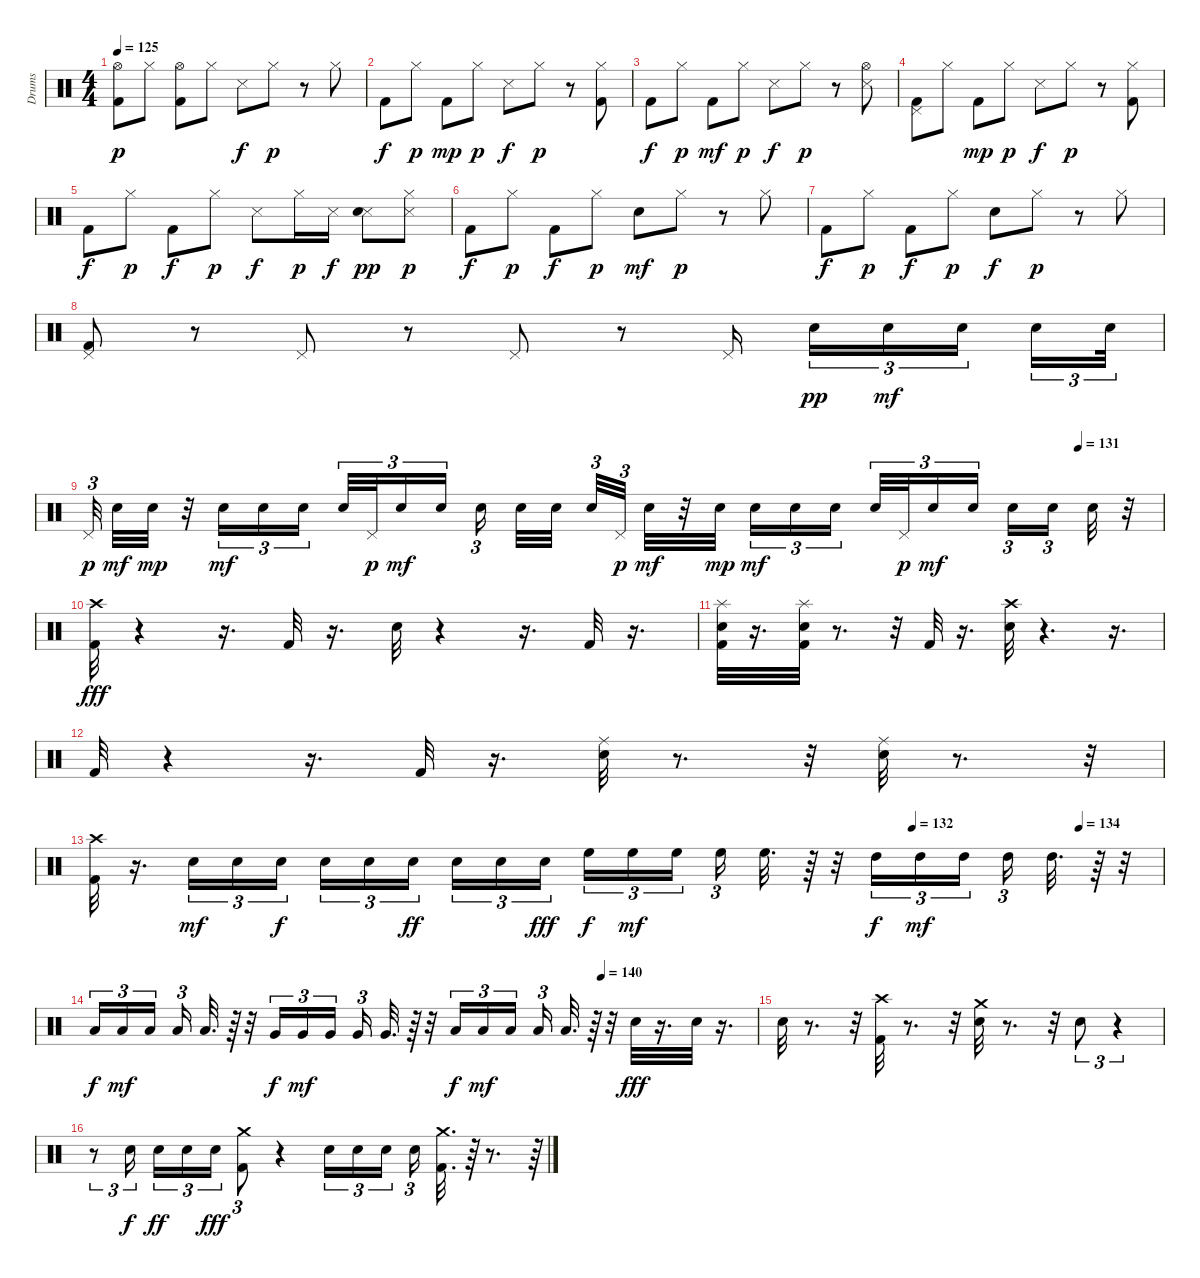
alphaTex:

\track ("Drums" "Drums") {instrument percussion}
\staff {score}
\articulation defaults
\ts (4 4)
\tempo 125
\clef neutral
\ks c
("Hi-Hat (open)" "Kick (hit) 2").8{dy p} "Hi-Hat (closed)".8 ("Kick (hit) 2" "Hi-Hat (open)").8 "Hi-Hat (closed)".8 "Snare (side stick) 3".8{dy f} "Hi-Hat (closed)".8{dy p} r.8 "Hi-Hat (closed)".8 |
"Kick (hit) 2".8{dy f} "Hi-Hat (closed)".8{dy p} "Kick (hit) 2".8{dy mp} "Hi-Hat (closed)".8{dy p} "Snare (side stick) 3".8{dy f} "Hi-Hat (closed)".8{dy p} r.8 ("Kick (hit) 2" "Hi-Hat (closed)").8 |
"Kick (hit) 2".8{dy f} "Hi-Hat (closed)".8{dy p} "Kick (hit) 2".8{dy mf} "Hi-Hat (closed)".8{dy p} "Snare (side stick) 3".8{dy f} "Hi-Hat (closed)".8{dy p} r.8 ("Snare (side stick) 3" "Hi-Hat (open)").8 |
("Pedal Hi-Hat (hit)" "Kick (hit) 2").8 "Hi-Hat (closed)".8 "Kick (hit) 2".8{dy mp} "Hi-Hat (closed)".8{dy p} "Snare (side stick) 3".8{dy f} "Hi-Hat (closed)".8{dy p} r.8 ("Kick (hit) 2" "Hi-Hat (closed)").8 |
"Kick (hit) 2".8{dy f} "Hi-Hat (closed)".8{dy p} "Kick (hit) 2".8{dy f} "Hi-Hat (closed)".8{dy p} "Snare (side stick) 3".8{dy f} "Hi-Hat (closed)".16{dy p} "Snare (side stick) 3".16{dy f} ("Snare (side stick) 3" "Snare (hit) 2").8{dy pp} ("Snare (side stick) 3" "Hi-Hat (closed)").8{dy p} |
"Kick (hit) 2".8{dy f} "Hi-Hat (closed)".8{dy p} "Kick (hit) 2".8{dy f} "Hi-Hat (closed)".8{dy p} "Snare (hit) 2".8{dy mf} "Hi-Hat (closed)".8{dy p} r.8 "Hi-Hat (closed)".8 |
"Kick (hit) 2".8{dy f} "Hi-Hat (closed)".8{dy p} "Kick (hit) 2".8{dy f} "Hi-Hat (closed)".8{dy p} "Snare (hit) 2".8{dy f} "Hi-Hat (closed)".8{dy p} r.8 "Hi-Hat (closed)".8 |
("Pedal Hi-Hat (hit)" "Kick (hit) 2").8 r.8 "Pedal Hi-Hat (hit)".8 r.8 "Pedal Hi-Hat (hit)".8 r.8 "Pedal Hi-Hat (hit)".16 "Snare (hit) 2".16{tu (3 2) dy pp} "Snare (hit) 2".16{tu (3 2) dy mf volume 5} "Snare (hit) 2".16{tu (3 2) volume 6} "Snare (hit) 2".16{tu (3 2) volume 6} "Snare (hit) 2".32{tu (3 2) volume 6} |
\tempo (131 0.921875)
"Pedal Hi-Hat (hit)".32{tu (3 2) dy p volume 6} "Snare (hit) 2".32{dy mf volume 6} "Snare (hit) 2".32{dy mp volume 6} r.32 "Snare (hit) 2".16{tu (3 2) dy mf volume 6} "Snare (hit) 2".16{tu (3 2) volume 7} "Snare (hit) 2".16{tu (3 2) volume 7} "Snare (hit) 2".32{tu (3 2) volume 7} "Pedal Hi-Hat (hit)".32{tu (3 2) dy p volume 7} "Snare (hit) 2".16{tu (3 2) dy mf} "Snare (hit) 2".16{tu (3 2) volume 7} "Snare (hit) 2".16{tu (3 2) volume 8} "Snare (hit) 2".32{volume 8} "Snare (hit) 2".32{volume 8} "Snare (hit) 2".32{tu (3 2) volume 8} "Pedal Hi-Hat (hit)".32{tu (3 2) dy p} "Snare (hit) 2".32{dy mf volume 8} r.32 "Snare (hit) 2".32{dy mp volume 8} "Snare (hit) 2".16{tu (3 2) dy mf volume 9} "Snare (hit) 2".16{tu (3 2) volume 9} "Snare (hit) 2".16{tu (3 2) volume 9} "Snare (hit) 2".32{tu (3 2) volume 9} "Pedal Hi-Hat (hit)".32{tu (3 2) dy p volume 9} "Snare (hit) 2".16{tu (3 2) dy mf volume 9} "Snare (hit) 2".16{tu (3 2) volume 10} "Snare (hit) 2".16{tu (3 2) volume 10} "Snare (hit) 2".16{tu (3 2) volume 10} "Snare (hit) 2".32{volume 10} r.32 |
("Kick (hit) 2" "Crash high (hit)").32{dy fff volume 11} r.4 r.16{d} "Kick (hit) 2".32 r.16{d} "Snare (hit) 2".32 r.4 r.16{d} "Kick (hit) 2".32 r.16{d} |
("Splash (hit)" "Snare (hit) 2" "Kick (hit) 2").32 r.16{d} ("Snare (hit) 2" "Kick (hit) 2" "Splash (hit)").32 r.8{d} r.32 "Kick (hit) 2".32 r.16{d} ("Snare (hit) 2" "Crash high (hit)").32 r.4{d} r.16{d} |
"Kick (hit) 2".32 r.4 r.16{d} "Kick (hit) 2".32 r.16{d} ("Snare (hit) 2" "Ride (middle)").32 r.8{d} r.32 ("Ride (middle)" "Snare (hit) 2").32 r.8{d} r.32 |
\tempo (132 0.765625)
\tempo (134 0.921875)
("Kick (hit) 2" "Crash high (hit)").32 r.16{d} "Snare (hit) 2".16{tu (3 2) dy mf} "Snare (hit) 2".16{tu (3 2)} "Snare (hit) 2".16{tu (3 2) dy f} "Snare (hit) 2".16{tu (3 2)} "Snare (hit) 2".16{tu (3 2)} "Snare (hit) 2".16{tu (3 2) dy ff} "Snare (hit) 2".16{tu (3 2)} "Snare (hit) 2".16{tu (3 2)} "Snare (hit) 2".16{tu (3 2) dy fff} "High Floor Tom (hit)".16{tu (3 2) dy f} "High Floor Tom (hit)".16{tu (3 2) dy mf} "High Floor Tom (hit)".16{tu (3 2)} "High Floor Tom (hit)".16{tu (3 2)} "High Floor Tom (hit)".32{d} r.64 r.32 "High Tom (hit)".16{tu (3 2) dy f} "High Tom (hit)".16{tu (3 2) dy mf} "High Tom (hit)".16{tu (3 2)} "High Tom (hit)".16{tu (3 2)} "High Tom (hit)".32{d} r.64 r.32 |
\tempo (140 0.765625)
"Low Tom (hit)".16{tu (3 2) dy f} "Low Tom (hit)".16{tu (3 2) dy mf} "Low Tom (hit)".16{tu (3 2)} "Low Tom (hit)".16{tu (3 2)} "Low Tom (hit)".32{d} r.64 r.32 "Very Low Tom (hit)".16{tu (3 2) dy f} "Very Low Tom (hit)".16{tu (3 2) dy mf} "Very Low Tom (hit)".16{tu (3 2)} "Very Low Tom (hit)".16{tu (3 2)} "Very Low Tom (hit)".32{d} r.64 r.32 "Low Floor Tom (hit)".16{tu (3 2) dy f} "Low Floor Tom (hit)".16{tu (3 2) dy mf} "Low Floor Tom (hit)".16{tu (3 2)} "Low Floor Tom (hit)".16{tu (3 2)} "Low Floor Tom (hit)".32{d} r.64 r.32 "Snare (hit) 2".32{dy fff} r.16{d} "Snare (hit) 2".32 r.16{d} |
"Snare (hit) 2".32 r.8{d} r.32 ("Crash high (hit)" "Kick (hit) 2").32 r.8{d} r.32 ("Snare (hit) 2" "Crash medium (hit)").32 r.8{d} r.32 "Snare (hit) 2".8{tu (3 2)} r.4{tu (3 2)} |
r.8{tu (3 2)} "Snare (hit) 2".16{tu (3 2) dy f} "Snare (hit) 2".16{tu (3 2) dy ff} "Snare (hit) 2".16{tu (3 2)} "Snare (hit) 2".16{tu (3 2) dy fff} ("Kick (hit) 2" "Crash medium (hit)").8{tu (3 2)} r.4 "Snare (hit) 2".16{tu (3 2)} "Snare (hit) 2".16{tu (3 2)} "Snare (hit) 2".16{tu (3 2)} "Snare (hit) 2".16{tu (3 2)} ("Kick (hit) 2" "Crash medium (hit)").32{d} r.64 r.8{d} r.64{tu (3 2)}
